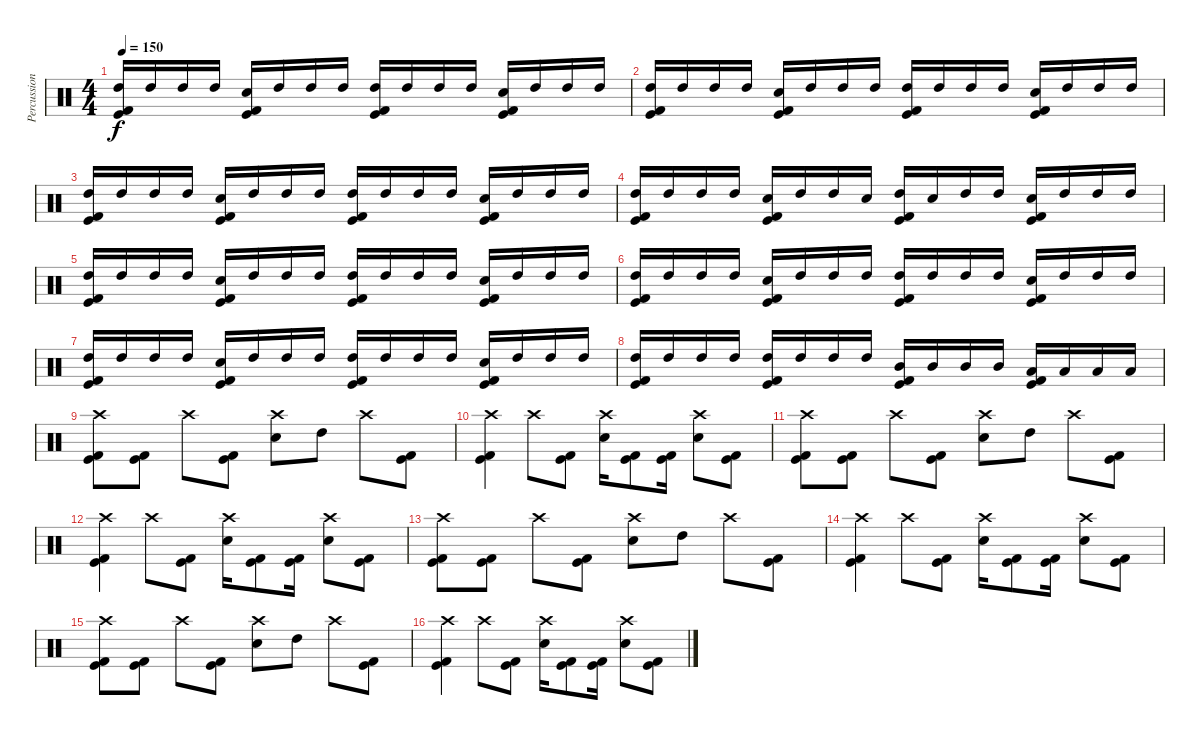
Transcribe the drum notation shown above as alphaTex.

\track ("Percussion" "Percussion") {instrument percussion}
\staff {score}
\articulation defaults
\ts (4 4)
\tempo 150
\clef neutral
\ks c
("High Tom (hit)" "Kick (hit)" "Kick (hit) 2").16{dy f} "High Tom (hit)".16 "High Tom (hit)".16 "High Tom (hit)".16 ("Electric Snare (hit)" "Kick (hit)" "Kick (hit) 2").16 "High Tom (hit)".16 "High Tom (hit)".16 "High Tom (hit)".16 ("High Tom (hit)" "Kick (hit)" "Kick (hit) 2").16 "High Tom (hit)".16 "High Tom (hit)".16 "High Tom (hit)".16 ("Electric Snare (hit)" "Kick (hit)" "Kick (hit) 2").16 "High Tom (hit)".16 "High Tom (hit)".16 "High Tom (hit)".16 |
("High Tom (hit)" "Kick (hit)" "Kick (hit) 2").16 "High Tom (hit)".16 "High Tom (hit)".16 "High Tom (hit)".16 ("Electric Snare (hit)" "Kick (hit)" "Kick (hit) 2").16 "High Tom (hit)".16 "High Tom (hit)".16 "High Tom (hit)".16 ("High Tom (hit)" "Kick (hit)" "Kick (hit) 2").16 "High Tom (hit)".16 "High Tom (hit)".16 "High Tom (hit)".16 ("Electric Snare (hit)" "Kick (hit)" "Kick (hit) 2").16 "High Tom (hit)".16 "High Tom (hit)".16 "High Tom (hit)".16 |
("High Tom (hit)" "Kick (hit)" "Kick (hit) 2").16 "High Tom (hit)".16 "High Tom (hit)".16 "High Tom (hit)".16 ("Electric Snare (hit)" "Kick (hit)" "Kick (hit) 2").16 "High Tom (hit)".16 "High Tom (hit)".16 "High Tom (hit)".16 ("High Tom (hit)" "Kick (hit)" "Kick (hit) 2").16 "High Tom (hit)".16 "High Tom (hit)".16 "High Tom (hit)".16 ("Electric Snare (hit)" "Kick (hit)" "Kick (hit) 2").16 "High Tom (hit)".16 "High Tom (hit)".16 "High Tom (hit)".16 |
("High Tom (hit)" "Kick (hit)" "Kick (hit) 2").16 "High Tom (hit)".16 "High Tom (hit)".16 "High Tom (hit)".16 ("Electric Snare (hit)" "Kick (hit)" "Kick (hit) 2").16 "High Tom (hit)".16 "High Tom (hit)".16 "Electric Snare (hit)".16 ("High Tom (hit)" "Kick (hit)" "Kick (hit) 2").16 "Electric Snare (hit)".16 "High Tom (hit)".16 "High Tom (hit)".16 ("Electric Snare (hit)" "Kick (hit)" "Kick (hit) 2").16 "High Tom (hit)".16 "High Tom (hit)".16 "High Tom (hit)".16 |
("High Tom (hit)" "Kick (hit)" "Kick (hit) 2").16 "High Tom (hit)".16 "High Tom (hit)".16 "High Tom (hit)".16 ("Electric Snare (hit)" "Kick (hit)" "Kick (hit) 2").16 "High Tom (hit)".16 "High Tom (hit)".16 "High Tom (hit)".16 ("High Tom (hit)" "Kick (hit)" "Kick (hit) 2").16 "High Tom (hit)".16 "High Tom (hit)".16 "High Tom (hit)".16 ("Electric Snare (hit)" "Kick (hit)" "Kick (hit) 2").16 "High Tom (hit)".16 "High Tom (hit)".16 "High Tom (hit)".16 |
("High Tom (hit)" "Kick (hit)" "Kick (hit) 2").16 "High Tom (hit)".16 "High Tom (hit)".16 "High Tom (hit)".16 ("Electric Snare (hit)" "Kick (hit)" "Kick (hit) 2").16 "High Tom (hit)".16 "High Tom (hit)".16 "High Tom (hit)".16 ("High Tom (hit)" "Kick (hit)" "Kick (hit) 2").16 "High Tom (hit)".16 "High Tom (hit)".16 "High Tom (hit)".16 ("Electric Snare (hit)" "Kick (hit)" "Kick (hit) 2").16 "High Tom (hit)".16 "High Tom (hit)".16 "High Tom (hit)".16 |
("High Tom (hit)" "Kick (hit)" "Kick (hit) 2").16 "High Tom (hit)".16 "High Tom (hit)".16 "High Tom (hit)".16 ("Electric Snare (hit)" "Kick (hit)" "Kick (hit) 2").16 "High Tom (hit)".16 "High Tom (hit)".16 "High Tom (hit)".16 ("High Tom (hit)" "Kick (hit)" "Kick (hit) 2").16 "High Tom (hit)".16 "High Tom (hit)".16 "High Tom (hit)".16 ("Electric Snare (hit)" "Kick (hit)" "Kick (hit) 2").16 "High Tom (hit)".16 "High Tom (hit)".16 "High Tom (hit)".16 |
("High Tom (hit)" "Kick (hit)" "Kick (hit) 2").16 "High Tom (hit)".16 "High Tom (hit)".16 "High Tom (hit)".16 ("High Tom (hit)" "Kick (hit)" "Kick (hit) 2").16 "High Tom (hit)".16 "High Tom (hit)".16 "High Tom (hit)".16 ("Mid Tom (hit)" "Kick (hit)" "Kick (hit) 2").16 "Mid Tom (hit)".16 "Mid Tom (hit)".16 "Mid Tom (hit)".16 ("Low Tom (hit)" "Kick (hit)" "Kick (hit) 2").16 "Low Tom (hit)".16 "Low Tom (hit)".16 "Low Tom (hit)".16 |
("Crash high (hit)" "Kick (hit)" "Kick (hit) 2").8 ("Kick (hit)" "Kick (hit) 2").8 "Crash high (hit)".8 ("Kick (hit)" "Kick (hit) 2").8 ("Crash high (hit)" "Electric Snare (hit)").8 "High Tom (hit)".8 "Crash high (hit)".8 ("Kick (hit)" "Kick (hit) 2").8 |
("Crash high (hit)" "Kick (hit)" "Kick (hit) 2").4 "Crash high (hit)".8 ("Kick (hit)" "Kick (hit) 2").8 ("Crash high (hit)" "Electric Snare (hit)").16 ("Kick (hit)" "Kick (hit) 2").8 ("Kick (hit)" "Kick (hit) 2").16 ("Crash high (hit)" "Electric Snare (hit)").8 ("Kick (hit)" "Kick (hit) 2").8 |
("Crash high (hit)" "Kick (hit)" "Kick (hit) 2").8 ("Kick (hit)" "Kick (hit) 2").8 "Crash high (hit)".8 ("Kick (hit)" "Kick (hit) 2").8 ("Crash high (hit)" "Electric Snare (hit)").8 "High Tom (hit)".8 "Crash high (hit)".8 ("Kick (hit)" "Kick (hit) 2").8 |
("Crash high (hit)" "Kick (hit)" "Kick (hit) 2").4 "Crash high (hit)".8 ("Kick (hit)" "Kick (hit) 2").8 ("Crash high (hit)" "Electric Snare (hit)").16 ("Kick (hit)" "Kick (hit) 2").8 ("Kick (hit)" "Kick (hit) 2").16 ("Crash high (hit)" "Electric Snare (hit)").8 ("Kick (hit)" "Kick (hit) 2").8 |
("Crash high (hit)" "Kick (hit)" "Kick (hit) 2").8 ("Kick (hit)" "Kick (hit) 2").8 "Crash high (hit)".8 ("Kick (hit)" "Kick (hit) 2").8 ("Crash high (hit)" "Electric Snare (hit)").8 "High Tom (hit)".8 "Crash high (hit)".8 ("Kick (hit)" "Kick (hit) 2").8 |
("Crash high (hit)" "Kick (hit)" "Kick (hit) 2").4 "Crash high (hit)".8 ("Kick (hit)" "Kick (hit) 2").8 ("Crash high (hit)" "Electric Snare (hit)").16 ("Kick (hit)" "Kick (hit) 2").8 ("Kick (hit)" "Kick (hit) 2").16 ("Crash high (hit)" "Electric Snare (hit)").8 ("Kick (hit)" "Kick (hit) 2").8 |
("Crash high (hit)" "Kick (hit)" "Kick (hit) 2").8 ("Kick (hit)" "Kick (hit) 2").8 "Crash high (hit)".8 ("Kick (hit)" "Kick (hit) 2").8 ("Crash high (hit)" "Electric Snare (hit)").8 "High Tom (hit)".8 "Crash high (hit)".8 ("Kick (hit)" "Kick (hit) 2").8 |
("Crash high (hit)" "Kick (hit)" "Kick (hit) 2").4 "Crash high (hit)".8 ("Kick (hit)" "Kick (hit) 2").8 ("Crash high (hit)" "Electric Snare (hit)").16 ("Kick (hit)" "Kick (hit) 2").8 ("Kick (hit)" "Kick (hit) 2").16 ("Crash high (hit)" "Electric Snare (hit)").8 ("Kick (hit)" "Kick (hit) 2").8
